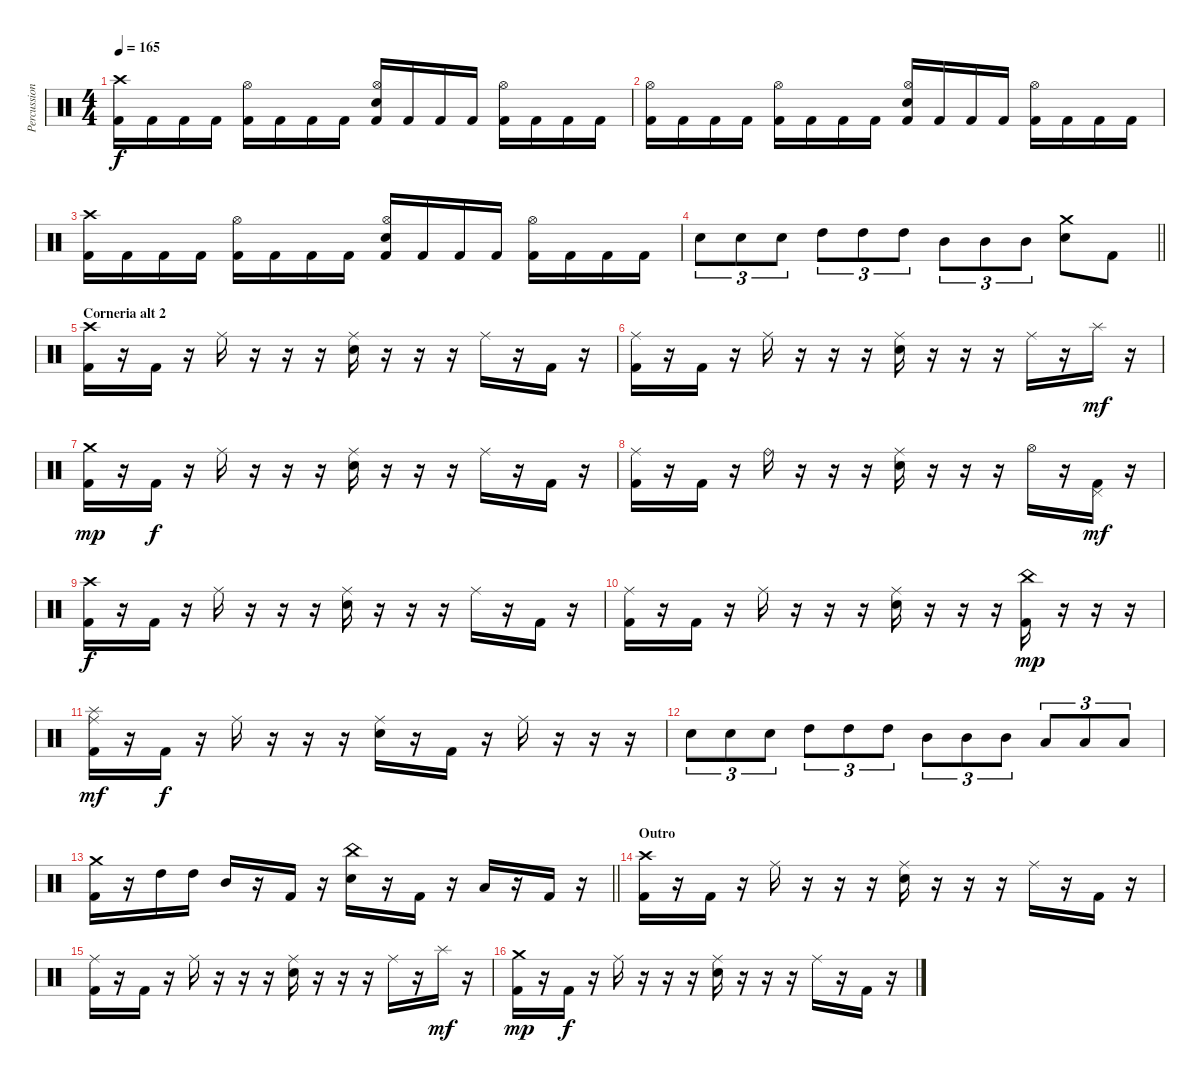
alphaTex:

\track ("Percussion" "Percussion") {instrument percussion}
\staff {score}
\articulation defaults
\ts (4 4)
\tempo 165
\clef neutral
\ks c
("Crash high (hit)" "Kick (hit) 2").16{dy f} "Kick (hit) 2".16 "Kick (hit) 2".16 "Kick (hit) 2".16 ("Hi-Hat (open)" "Kick (hit) 2").16 "Kick (hit) 2".16 "Kick (hit) 2".16 "Kick (hit) 2".16 ("Hi-Hat (open)" "Snare (hit) 2" "Kick (hit) 2").16 "Kick (hit) 2".16 "Kick (hit) 2".16 "Kick (hit) 2".16 ("Hi-Hat (open)" "Kick (hit) 2").16 "Kick (hit) 2".16 "Kick (hit) 2".16 "Kick (hit) 2".16 |
("Hi-Hat (open)" "Kick (hit) 2").16 "Kick (hit) 2".16 "Kick (hit) 2".16 "Kick (hit) 2".16 ("Hi-Hat (open)" "Kick (hit) 2").16 "Kick (hit) 2".16 "Kick (hit) 2".16 "Kick (hit) 2".16 ("Hi-Hat (open)" "Snare (hit) 2" "Kick (hit) 2").16 "Kick (hit) 2".16 "Kick (hit) 2".16 "Kick (hit) 2".16 ("Hi-Hat (open)" "Kick (hit) 2").16 "Kick (hit) 2".16 "Kick (hit) 2".16 "Kick (hit) 2".16 |
("Crash high (hit)" "Kick (hit) 2").16 "Kick (hit) 2".16 "Kick (hit) 2".16 "Kick (hit) 2".16 ("Hi-Hat (open)" "Kick (hit) 2").16 "Kick (hit) 2".16 "Kick (hit) 2".16 "Kick (hit) 2".16 ("Hi-Hat (open)" "Snare (hit) 2" "Kick (hit) 2").16 "Kick (hit) 2".16 "Kick (hit) 2".16 "Kick (hit) 2".16 ("Hi-Hat (open)" "Kick (hit) 2").16 "Kick (hit) 2".16 "Kick (hit) 2".16 "Kick (hit) 2".16 |
\barLineRight lightlight "Snare (hit) 2".8{tu (3 2)} "Snare (hit) 2".8{tu (3 2)} "Snare (hit) 2".8{tu (3 2)} "High Tom (hit)".8{tu (3 2)} "High Tom (hit)".8{tu (3 2)} "High Tom (hit)".8{tu (3 2)} "Mid Tom (hit)".8{tu (3 2)} "Mid Tom (hit)".8{tu (3 2)} "Mid Tom (hit)".8{tu (3 2)}
("Crash medium (hit)" "Snare (hit) 2").8 "Kick (hit) 2".8 |
\section ("" "Corneria alt 2")
("Crash high (hit)" "Kick (hit) 2").16 r.16 "Kick (hit) 2".16 r.16 "Ride (middle)".16 r.16 r.16 r.16 ("Ride (middle)" "Snare (hit) 2").16 r.16 r.16 r.16 "Ride (middle)".16 r.16 "Kick (hit) 2".16 r.16 |
("Ride (middle)" "Kick (hit) 2").16 r.16 "Kick (hit) 2".16 r.16 "Ride (middle)".16 r.16 r.16 r.16 ("Ride (middle)" "Snare (hit) 2").16 r.16 r.16 r.16 "Ride (middle)".16 r.16 "Splash (hit)".16{dy mf} r.16 |
("Crash medium (hit)" "Kick (hit) 2").16{dy mp} r.16 "Kick (hit) 2".16{dy f} r.16 "Ride (middle)".16 r.16 r.16 r.16 ("Ride (middle)" "Snare (hit) 2").16 r.16 r.16 r.16 "Ride (middle)".16 r.16 "Kick (hit) 2".16 r.16 |
("Ride (middle)" "Kick (hit) 2").16 r.16 "Kick (hit) 2".16 r.16 "Ride (bell)".16 r.16 r.16 r.16 ("Ride (middle)" "Snare (hit) 2").16 r.16 r.16 r.16 "Hi-Hat (open)".16 r.16 ("Pedal Hi-Hat (hit)" "Kick (hit) 2").16{dy mf} r.16 |
("Crash high (hit)" "Kick (hit) 2").16{dy f} r.16 "Kick (hit) 2".16 r.16 "Ride (middle)".16 r.16 r.16 r.16 ("Ride (middle)" "Snare (hit) 2").16 r.16 r.16 r.16 "Ride (middle)".16 r.16 "Kick (hit) 2".16 r.16 |
("Ride (middle)" "Kick (hit) 2").16 r.16 "Kick (hit) 2".16 r.16 "Ride (middle)".16 r.16 r.16 r.16 ("Ride (middle)" "Snare (hit) 2").16 r.16 r.16 r.16 ("China (hit)" "Kick (hit) 2").16{dy mp} r.16 r.16 r.16 |
("Splash (hit)" "Ride (middle)" "Kick (hit) 2").16{dy mf} r.16 "Kick (hit) 2".16{dy f} r.16 "Ride (middle)".16 r.16 r.16 r.16 ("Ride (middle)" "Snare (hit) 2").16 r.16 "Kick (hit) 2".16 r.16 "Ride (middle)".16 r.16 r.16 r.16 |
"Snare (hit) 2".8{tu (3 2)} "Snare (hit) 2".8{tu (3 2)} "Snare (hit) 2".8{tu (3 2)} "High Tom (hit)".8{tu (3 2)} "High Tom (hit)".8{tu (3 2)} "High Tom (hit)".8{tu (3 2)} "Mid Tom (hit)".8{tu (3 2)} "Mid Tom (hit)".8{tu (3 2)} "Mid Tom (hit)".8{tu (3 2)} "Low Tom (hit)".8{tu (3 2)} "Low Tom (hit)".8{tu (3 2)} "Low Tom (hit)".8{tu (3 2)} |
\barLineRight lightlight
("Crash medium (hit)" "Kick (hit) 2").16 r.16 "High Tom (hit)".16 "High Tom (hit)".16 "Mid Tom (hit)".16 r.16 "Kick (hit) 2".16 r.16 ("China (hit)" "Snare (hit) 2").16 r.16 "Kick (hit) 2".16 r.16 "Low Tom (hit)".16 r.16 "Kick (hit) 2".16 r.16 |
\section ("" "Outro")
("Crash high (hit)" "Kick (hit) 2").16 r.16 "Kick (hit) 2".16 r.16 "Ride (middle)".16 r.16 r.16 r.16 ("Ride (middle)" "Snare (hit) 2").16 r.16 r.16 r.16 "Ride (middle)".16 r.16 "Kick (hit) 2".16 r.16 |
("Ride (middle)" "Kick (hit) 2").16 r.16 "Kick (hit) 2".16 r.16 "Ride (middle)".16 r.16 r.16 r.16 ("Ride (middle)" "Snare (hit) 2").16 r.16 r.16 r.16 "Ride (middle)".16 r.16 "Splash (hit)".16{dy mf} r.16 |
("Crash medium (hit)" "Kick (hit) 2").16{dy mp} r.16 "Kick (hit) 2".16{dy f} r.16 "Ride (middle)".16 r.16 r.16 r.16 ("Ride (middle)" "Snare (hit) 2").16 r.16 r.16 r.16 "Ride (middle)".16 r.16 "Kick (hit) 2".16 r.16
